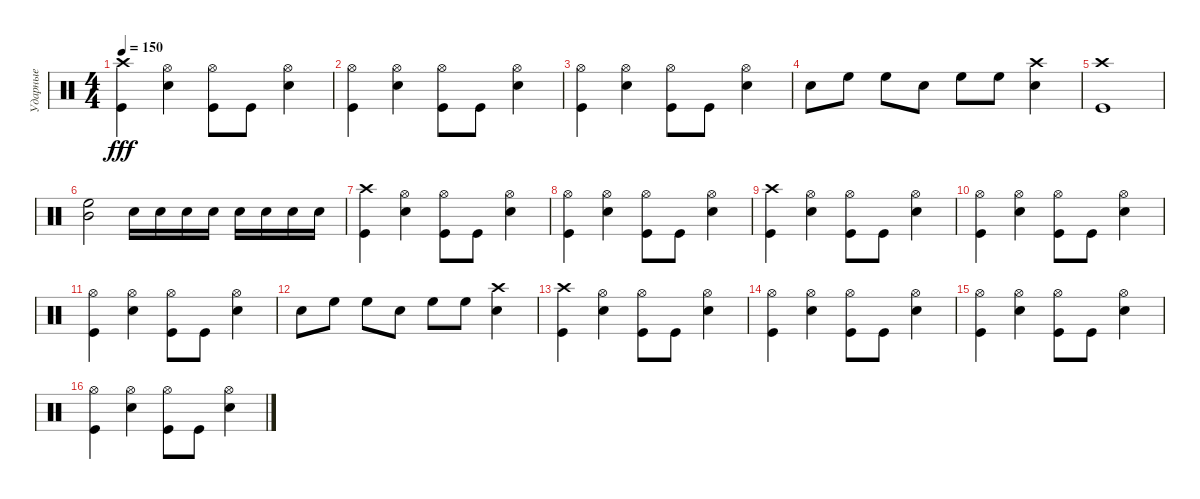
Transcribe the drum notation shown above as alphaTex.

\track ("Ударные" "Ударные") {instrument percussion}
\staff {score}
\articulation defaults
\ts (4 4)
\tempo 150
\clef neutral
\ks c
("Crash high (hit)" "Kick (hit)").4{dy fff} ("Hi-Hat (open)" "Electric Snare (hit)").4 ("Hi-Hat (open)" "Kick (hit)").8 "Kick (hit)".8 ("Hi-Hat (open)" "Electric Snare (hit)").4 |
("Hi-Hat (open)" "Kick (hit)").4 ("Hi-Hat (open)" "Electric Snare (hit)").4 ("Hi-Hat (open)" "Kick (hit)").8 "Kick (hit)".8 ("Hi-Hat (open)" "Electric Snare (hit)").4 |
("Hi-Hat (open)" "Kick (hit)").4 ("Hi-Hat (open)" "Electric Snare (hit)").4 ("Hi-Hat (open)" "Kick (hit)").8 "Kick (hit)".8 ("Hi-Hat (open)" "Electric Snare (hit)").4 |
"Electric Snare (hit)".8 "High Floor Tom (hit)".8 "High Floor Tom (hit)".8 "Electric Snare (hit)".8 "High Floor Tom (hit)".8 "High Floor Tom (hit)".8 ("Electric Snare (hit)" "Crash high (hit)").4 |
("Kick (hit)" "Crash high (hit)").1 |
("Mid Tom (hit)" "High Floor Tom (hit)").2 "Electric Snare (hit)".16 "Electric Snare (hit)".16 "Electric Snare (hit)".16 "Electric Snare (hit)".16 "Electric Snare (hit)".16 "Electric Snare (hit)".16 "Electric Snare (hit)".16 "Electric Snare (hit)".16 |
("Crash high (hit)" "Kick (hit)").4 ("Hi-Hat (open)" "Electric Snare (hit)").4 ("Hi-Hat (open)" "Kick (hit)").8 "Kick (hit)".8 ("Hi-Hat (open)" "Electric Snare (hit)").4 |
("Hi-Hat (open)" "Kick (hit)").4 ("Hi-Hat (open)" "Electric Snare (hit)").4 ("Hi-Hat (open)" "Kick (hit)").8 "Kick (hit)".8 ("Hi-Hat (open)" "Electric Snare (hit)").4 |
("Crash high (hit)" "Kick (hit)").4 ("Hi-Hat (open)" "Electric Snare (hit)").4 ("Hi-Hat (open)" "Kick (hit)").8 "Kick (hit)".8 ("Hi-Hat (open)" "Electric Snare (hit)").4 |
("Hi-Hat (open)" "Kick (hit)").4 ("Hi-Hat (open)" "Electric Snare (hit)").4 ("Hi-Hat (open)" "Kick (hit)").8 "Kick (hit)".8 ("Hi-Hat (open)" "Electric Snare (hit)").4 |
("Hi-Hat (open)" "Kick (hit)").4 ("Hi-Hat (open)" "Electric Snare (hit)").4 ("Hi-Hat (open)" "Kick (hit)").8 "Kick (hit)".8 ("Hi-Hat (open)" "Electric Snare (hit)").4 |
"Electric Snare (hit)".8 "High Floor Tom (hit)".8 "High Floor Tom (hit)".8 "Electric Snare (hit)".8 "High Floor Tom (hit)".8 "High Floor Tom (hit)".8 ("Electric Snare (hit)" "Crash high (hit)").4 |
("Crash high (hit)" "Kick (hit)").4 ("Hi-Hat (open)" "Electric Snare (hit)").4 ("Hi-Hat (open)" "Kick (hit)").8 "Kick (hit)".8 ("Hi-Hat (open)" "Electric Snare (hit)").4 |
("Hi-Hat (open)" "Kick (hit)").4 ("Hi-Hat (open)" "Electric Snare (hit)").4 ("Hi-Hat (open)" "Kick (hit)").8 "Kick (hit)".8 ("Hi-Hat (open)" "Electric Snare (hit)").4 |
("Hi-Hat (open)" "Kick (hit)").4 ("Hi-Hat (open)" "Electric Snare (hit)").4 ("Hi-Hat (open)" "Kick (hit)").8 "Kick (hit)".8 ("Hi-Hat (open)" "Electric Snare (hit)").4 |
("Hi-Hat (open)" "Kick (hit)").4 ("Hi-Hat (open)" "Electric Snare (hit)").4 ("Hi-Hat (open)" "Kick (hit)").8 "Kick (hit)".8 ("Hi-Hat (open)" "Electric Snare (hit)").4
